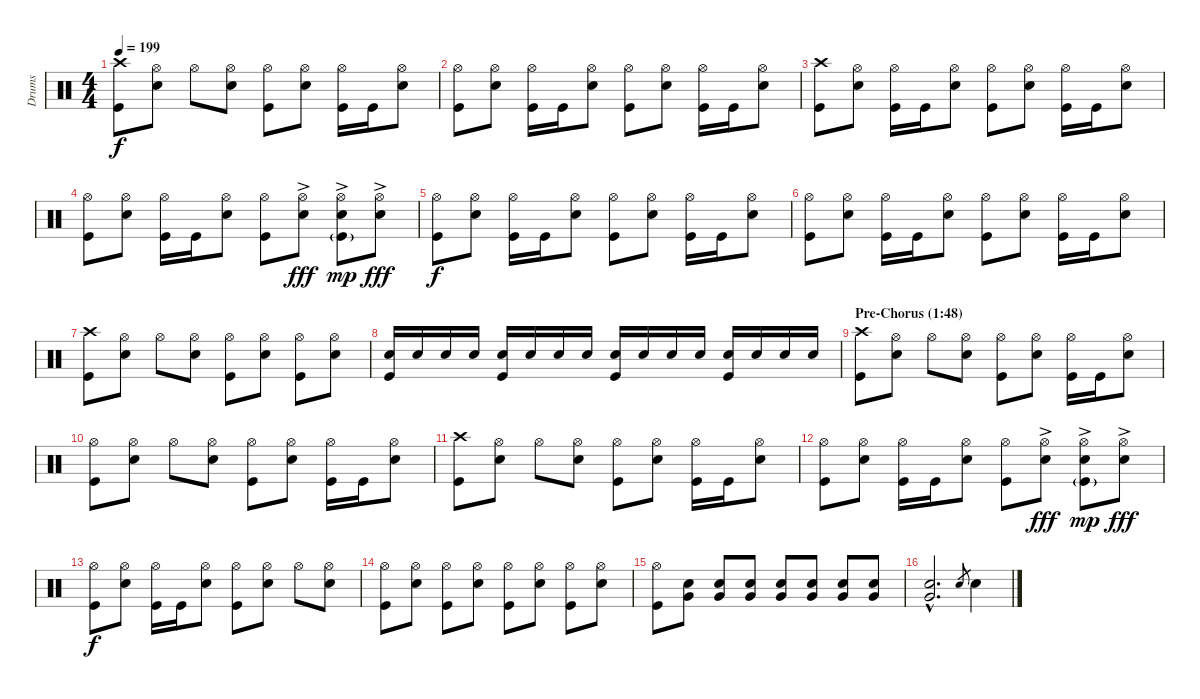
\track ("Drums" "Drums") {instrument percussion}
\staff {score}
\articulation defaults
\ts (4 4)
\tempo 199
\clef neutral
\ks c
("Crash high (hit)" "Kick (hit)").8{dy f} ("Hi-Hat (open)" "Snare (hit) 2").8 "Hi-Hat (open)".8 ("Hi-Hat (open)" "Snare (hit) 2").8 ("Hi-Hat (open)" "Kick (hit)").8 ("Hi-Hat (open)" "Snare (hit) 2").8 ("Hi-Hat (open)" "Kick (hit)").16 "Kick (hit)".16 ("Hi-Hat (open)" "Snare (hit) 2").8 |
("Hi-Hat (open)" "Kick (hit)").8 ("Hi-Hat (open)" "Snare (hit) 2").8 ("Hi-Hat (open)" "Kick (hit)").16 "Kick (hit)".16 ("Hi-Hat (open)" "Snare (hit) 2").8 ("Hi-Hat (open)" "Kick (hit)").8 ("Hi-Hat (open)" "Snare (hit) 2").8 ("Hi-Hat (open)" "Kick (hit)").16 "Kick (hit)".16 ("Hi-Hat (open)" "Snare (hit) 2").8 |
("Crash high (hit)" "Kick (hit)").8 ("Hi-Hat (open)" "Snare (hit) 2").8 ("Hi-Hat (open)" "Kick (hit)").16 "Kick (hit)".16 ("Hi-Hat (open)" "Snare (hit) 2").8 ("Hi-Hat (open)" "Kick (hit)").8 ("Hi-Hat (open)" "Snare (hit) 2").8 ("Hi-Hat (open)" "Kick (hit)").16 "Kick (hit)".16 ("Hi-Hat (open)" "Snare (hit) 2").8 |
("Hi-Hat (open)" "Kick (hit)").8 ("Hi-Hat (open)" "Snare (hit) 2").8 ("Hi-Hat (open)" "Kick (hit)").16 "Kick (hit)".16 ("Hi-Hat (open)" "Snare (hit) 2").8 ("Hi-Hat (open)" "Kick (hit)").8 ("Hi-Hat (open)"{ac} "Snare (hit) 2"{ac}).8{dy fff} ("Hi-Hat (open)"{ac} "Snare (hit) 2"{ac} "Kick (hit)"{g}).8{dy mp} ("Hi-Hat (open)"{ac} "Snare (hit) 2"{ac}).8{dy fff} |
("Hi-Hat (open)" "Kick (hit)").8{dy f} ("Hi-Hat (open)" "Snare (hit) 2").8 ("Hi-Hat (open)" "Kick (hit)").16 "Kick (hit)".16 ("Hi-Hat (open)" "Snare (hit) 2").8 ("Hi-Hat (open)" "Kick (hit)").8 ("Hi-Hat (open)" "Snare (hit) 2").8 ("Hi-Hat (open)" "Kick (hit)").16 "Kick (hit)".16 ("Hi-Hat (open)" "Snare (hit) 2").8 |
("Hi-Hat (open)" "Kick (hit)").8 ("Hi-Hat (open)" "Snare (hit) 2").8 ("Hi-Hat (open)" "Kick (hit)").16 "Kick (hit)".16 ("Hi-Hat (open)" "Snare (hit) 2").8 ("Hi-Hat (open)" "Kick (hit)").8 ("Hi-Hat (open)" "Snare (hit) 2").8 ("Hi-Hat (open)" "Kick (hit)").16 "Kick (hit)".16 ("Hi-Hat (open)" "Snare (hit) 2").8 |
("Crash high (hit)" "Kick (hit)").8 ("Hi-Hat (open)" "Snare (hit) 2").8 "Hi-Hat (open)".8 ("Hi-Hat (open)" "Snare (hit) 2").8 ("Hi-Hat (open)" "Kick (hit)").8 ("Hi-Hat (open)" "Snare (hit) 2").8 ("Hi-Hat (open)" "Kick (hit)").8 ("Hi-Hat (open)" "Snare (hit) 2").8 |
("Snare (hit) 2" "Kick (hit)").16 "Snare (hit) 2".16 "Snare (hit) 2".16 "Snare (hit) 2".16 ("Snare (hit) 2" "Kick (hit)").16 "Snare (hit) 2".16 "Snare (hit) 2".16 "Snare (hit) 2".16 ("Snare (hit) 2" "Kick (hit)").16 "Snare (hit) 2".16 "Snare (hit) 2".16 "Snare (hit) 2".16 ("Snare (hit) 2" "Kick (hit)").16 "Snare (hit) 2".16 "Snare (hit) 2".16 "Snare (hit) 2".16 |
\section ("" "Pre-Chorus (1:48)")
("Crash high (hit)" "Kick (hit)").8 ("Hi-Hat (open)" "Snare (hit) 2").8 "Hi-Hat (open)".8 ("Hi-Hat (open)" "Snare (hit) 2").8 ("Hi-Hat (open)" "Kick (hit)").8 ("Hi-Hat (open)" "Snare (hit) 2").8 ("Hi-Hat (open)" "Kick (hit)").16 "Kick (hit)".16 ("Hi-Hat (open)" "Snare (hit) 2").8 |
("Hi-Hat (open)" "Kick (hit)").8 ("Hi-Hat (open)" "Snare (hit) 2").8 "Hi-Hat (open)".8 ("Hi-Hat (open)" "Snare (hit) 2").8 ("Hi-Hat (open)" "Kick (hit)").8 ("Hi-Hat (open)" "Snare (hit) 2").8 ("Hi-Hat (open)" "Kick (hit)").16 "Kick (hit)".16 ("Hi-Hat (open)" "Snare (hit) 2").8 |
("Crash high (hit)" "Kick (hit)").8 ("Hi-Hat (open)" "Snare (hit) 2").8 "Hi-Hat (open)".8 ("Hi-Hat (open)" "Snare (hit) 2").8 ("Hi-Hat (open)" "Kick (hit)").8 ("Hi-Hat (open)" "Snare (hit) 2").8 ("Hi-Hat (open)" "Kick (hit)").16 "Kick (hit)".16 ("Hi-Hat (open)" "Snare (hit) 2").8 |
("Hi-Hat (open)" "Kick (hit)").8 ("Hi-Hat (open)" "Snare (hit) 2").8 ("Hi-Hat (open)" "Kick (hit)").16 "Kick (hit)".16 ("Hi-Hat (open)" "Snare (hit) 2").8 ("Hi-Hat (open)" "Kick (hit)").8 ("Hi-Hat (open)"{ac} "Snare (hit) 2"{ac}).8{dy fff} ("Hi-Hat (open)"{ac} "Snare (hit) 2"{ac} "Kick (hit)"{g}).8{dy mp} ("Hi-Hat (open)"{ac} "Snare (hit) 2"{ac}).8{dy fff} |
("Hi-Hat (open)" "Kick (hit)").8{dy f} ("Hi-Hat (open)" "Snare (hit) 2").8 ("Hi-Hat (open)" "Kick (hit)").16 "Kick (hit)".16 ("Hi-Hat (open)" "Snare (hit) 2").8 ("Hi-Hat (open)" "Kick (hit)").8 ("Hi-Hat (open)" "Snare (hit) 2").8 "Hi-Hat (open)".8 ("Hi-Hat (open)" "Snare (hit) 2").8 |
("Hi-Hat (open)" "Kick (hit)").8 ("Hi-Hat (open)" "Snare (hit) 2").8 ("Hi-Hat (open)" "Kick (hit)").8 ("Hi-Hat (open)" "Snare (hit) 2").8 ("Hi-Hat (open)" "Kick (hit)").8 ("Hi-Hat (open)" "Snare (hit) 2").8 ("Hi-Hat (open)" "Kick (hit)").8 ("Hi-Hat (open)" "Snare (hit) 2").8 |
("Hi-Hat (open)" "Kick (hit)").8 ("Snare (hit) 2" "Very Low Tom (hit)").8 ("Snare (hit) 2" "Very Low Tom (hit)").8 ("Snare (hit) 2" "Very Low Tom (hit)").8 ("Snare (hit) 2" "Very Low Tom (hit)").8 ("Snare (hit) 2" "Very Low Tom (hit)").8 ("Snare (hit) 2" "Very Low Tom (hit)").8 ("Snare (hit) 2" "Very Low Tom (hit)").8 |
("Snare (hit) 2"{hac} "Very Low Tom (hit)"{hac}).2{d} "Snare (hit) 2".8{gr} "Snare (hit) 2".4
